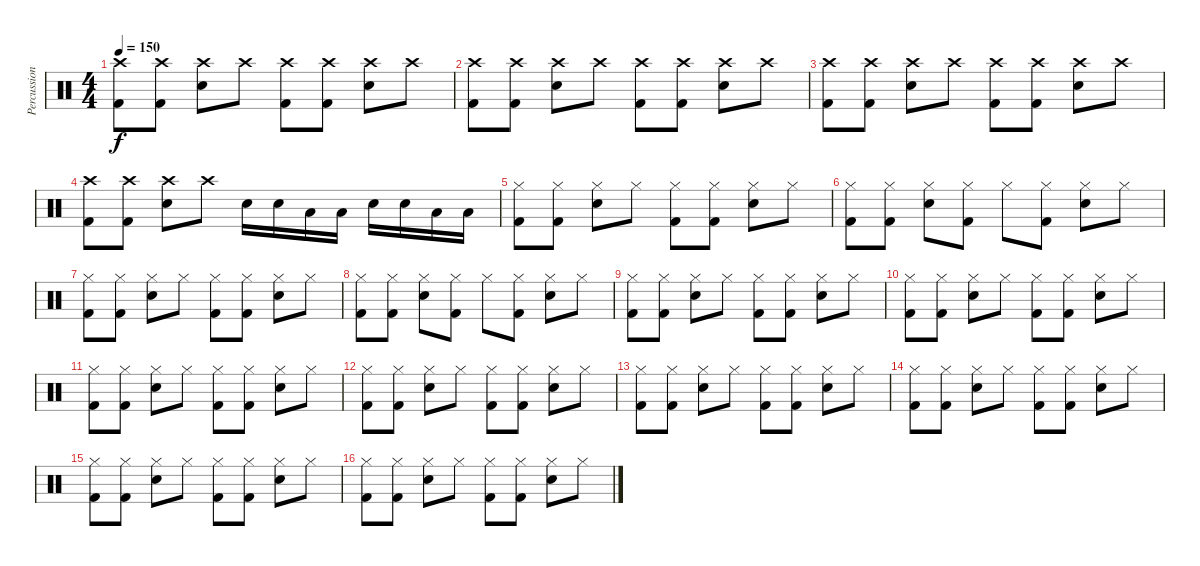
\track ("Percussion" "Percussion") {instrument percussion}
\staff {score}
\articulation defaults
\ts (4 4)
\tempo 150
\clef neutral
\ks c
("Crash high (hit)" "Kick (hit) 2").8{dy f} ("Crash high (hit)" "Kick (hit) 2").8 ("Crash high (hit)" "Electric Snare (hit)").8 "Crash high (hit)".8 ("Crash high (hit)" "Kick (hit) 2").8 ("Crash high (hit)" "Kick (hit) 2").8 ("Crash high (hit)" "Electric Snare (hit)").8 "Crash high (hit)".8 |
("Crash high (hit)" "Kick (hit) 2").8 ("Crash high (hit)" "Kick (hit) 2").8 ("Crash high (hit)" "Electric Snare (hit)").8 "Crash high (hit)".8 ("Crash high (hit)" "Kick (hit) 2").8 ("Crash high (hit)" "Kick (hit) 2").8 ("Crash high (hit)" "Electric Snare (hit)").8 "Crash high (hit)".8 |
("Crash high (hit)" "Kick (hit) 2").8 ("Crash high (hit)" "Kick (hit) 2").8 ("Crash high (hit)" "Electric Snare (hit)").8 "Crash high (hit)".8 ("Crash high (hit)" "Kick (hit) 2").8 ("Crash high (hit)" "Kick (hit) 2").8 ("Crash high (hit)" "Electric Snare (hit)").8 "Crash high (hit)".8 |
("Crash high (hit)" "Kick (hit) 2").8 ("Crash high (hit)" "Kick (hit) 2").8 ("Crash high (hit)" "Electric Snare (hit)").8 "Crash high (hit)".8 "Electric Snare (hit)".16 "Electric Snare (hit)".16 "Low Tom (hit)".16 "Low Tom (hit)".16 "Electric Snare (hit)".16 "Electric Snare (hit)".16 "Low Tom (hit)".16 "Low Tom (hit)".16 |
("Hi-Hat (closed)" "Kick (hit) 2").8 ("Hi-Hat (closed)" "Kick (hit) 2").8 ("Hi-Hat (closed)" "Electric Snare (hit)").8 "Hi-Hat (closed)".8 ("Hi-Hat (closed)" "Kick (hit) 2").8 ("Hi-Hat (closed)" "Kick (hit) 2").8 ("Hi-Hat (closed)" "Electric Snare (hit)").8 "Hi-Hat (closed)".8 |
("Hi-Hat (closed)" "Kick (hit) 2").8 ("Hi-Hat (closed)" "Kick (hit) 2").8 ("Hi-Hat (closed)" "Electric Snare (hit)").8 ("Hi-Hat (closed)" "Kick (hit) 2").8 "Hi-Hat (closed)".8 ("Hi-Hat (closed)" "Kick (hit) 2").8 ("Hi-Hat (closed)" "Electric Snare (hit)").8 "Hi-Hat (closed)".8 |
("Hi-Hat (closed)" "Kick (hit) 2").8 ("Hi-Hat (closed)" "Kick (hit) 2").8 ("Hi-Hat (closed)" "Electric Snare (hit)").8 "Hi-Hat (closed)".8 ("Hi-Hat (closed)" "Kick (hit) 2").8 ("Hi-Hat (closed)" "Kick (hit) 2").8 ("Hi-Hat (closed)" "Electric Snare (hit)").8 "Hi-Hat (closed)".8 |
("Hi-Hat (closed)" "Kick (hit) 2").8 ("Hi-Hat (closed)" "Kick (hit) 2").8 ("Hi-Hat (closed)" "Electric Snare (hit)").8 ("Hi-Hat (closed)" "Kick (hit) 2").8 "Hi-Hat (closed)".8 ("Hi-Hat (closed)" "Kick (hit) 2").8 ("Hi-Hat (closed)" "Electric Snare (hit)").8 "Hi-Hat (closed)".8 |
("Hi-Hat (closed)" "Kick (hit) 2").8 ("Hi-Hat (closed)" "Kick (hit) 2").8 ("Hi-Hat (closed)" "Electric Snare (hit)").8 "Hi-Hat (closed)".8 ("Hi-Hat (closed)" "Kick (hit) 2").8 ("Hi-Hat (closed)" "Kick (hit) 2").8 ("Hi-Hat (closed)" "Electric Snare (hit)").8 "Hi-Hat (closed)".8 |
("Hi-Hat (closed)" "Kick (hit) 2").8 ("Hi-Hat (closed)" "Kick (hit) 2").8 ("Hi-Hat (closed)" "Electric Snare (hit)").8 "Hi-Hat (closed)".8 ("Hi-Hat (closed)" "Kick (hit) 2").8 ("Hi-Hat (closed)" "Kick (hit) 2").8 ("Hi-Hat (closed)" "Electric Snare (hit)").8 "Hi-Hat (closed)".8 |
("Hi-Hat (closed)" "Kick (hit) 2").8 ("Hi-Hat (closed)" "Kick (hit) 2").8 ("Hi-Hat (closed)" "Electric Snare (hit)").8 "Hi-Hat (closed)".8 ("Hi-Hat (closed)" "Kick (hit) 2").8 ("Hi-Hat (closed)" "Kick (hit) 2").8 ("Hi-Hat (closed)" "Electric Snare (hit)").8 "Hi-Hat (closed)".8 |
("Hi-Hat (closed)" "Kick (hit) 2").8 ("Hi-Hat (closed)" "Kick (hit) 2").8 ("Hi-Hat (closed)" "Electric Snare (hit)").8 "Hi-Hat (closed)".8 ("Hi-Hat (closed)" "Kick (hit) 2").8 ("Hi-Hat (closed)" "Kick (hit) 2").8 ("Hi-Hat (closed)" "Electric Snare (hit)").8 "Hi-Hat (closed)".8 |
("Hi-Hat (closed)" "Kick (hit) 2").8 ("Hi-Hat (closed)" "Kick (hit) 2").8 ("Hi-Hat (closed)" "Electric Snare (hit)").8 "Hi-Hat (closed)".8 ("Hi-Hat (closed)" "Kick (hit) 2").8 ("Hi-Hat (closed)" "Kick (hit) 2").8 ("Hi-Hat (closed)" "Electric Snare (hit)").8 "Hi-Hat (closed)".8 |
("Hi-Hat (closed)" "Kick (hit) 2").8 ("Hi-Hat (closed)" "Kick (hit) 2").8 ("Hi-Hat (closed)" "Electric Snare (hit)").8 "Hi-Hat (closed)".8 ("Hi-Hat (closed)" "Kick (hit) 2").8 ("Hi-Hat (closed)" "Kick (hit) 2").8 ("Hi-Hat (closed)" "Electric Snare (hit)").8 "Hi-Hat (closed)".8 |
("Hi-Hat (closed)" "Kick (hit) 2").8 ("Hi-Hat (closed)" "Kick (hit) 2").8 ("Hi-Hat (closed)" "Electric Snare (hit)").8 "Hi-Hat (closed)".8 ("Hi-Hat (closed)" "Kick (hit) 2").8 ("Hi-Hat (closed)" "Kick (hit) 2").8 ("Hi-Hat (closed)" "Electric Snare (hit)").8 "Hi-Hat (closed)".8 |
("Hi-Hat (closed)" "Kick (hit) 2").8 ("Hi-Hat (closed)" "Kick (hit) 2").8 ("Hi-Hat (closed)" "Electric Snare (hit)").8 "Hi-Hat (closed)".8 ("Hi-Hat (closed)" "Kick (hit) 2").8 ("Hi-Hat (closed)" "Kick (hit) 2").8 ("Hi-Hat (closed)" "Electric Snare (hit)").8 "Hi-Hat (closed)".8
